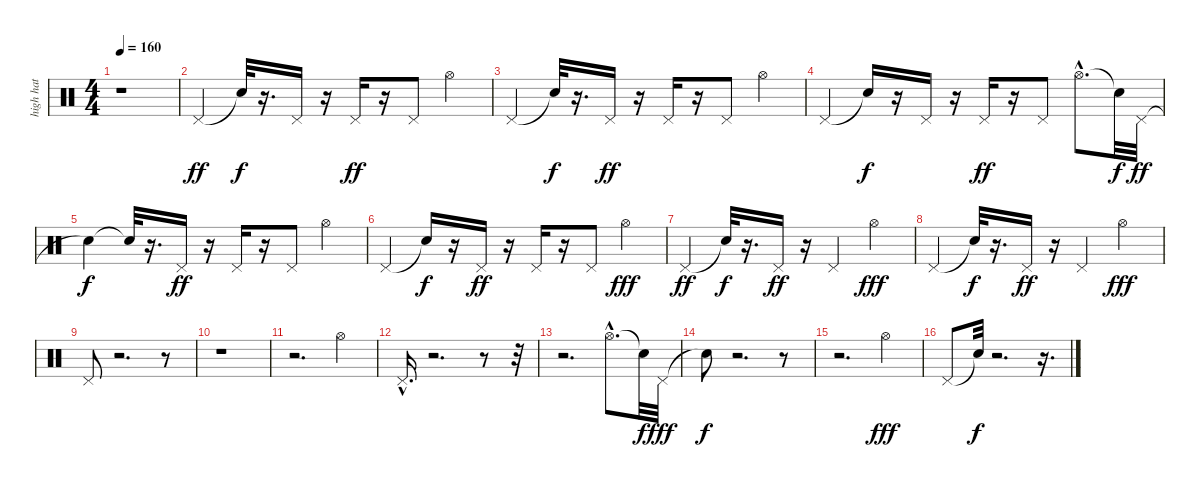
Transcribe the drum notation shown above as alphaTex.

\track ("high hat" "high hat") {instrument percussion}
\staff {score}
\articulation defaults
\ts (4 4)
\tempo 160
\clef neutral
\ks c
r.1{dy ff} |
"Pedal Hi-Hat (hit)".4 "Snare (hit)"{t}.32{dy f} r.16{d} "Pedal Hi-Hat (hit)".16 r.16 "Pedal Hi-Hat (hit)".16{dy ff} r.16 "Pedal Hi-Hat (hit)".8 "Hi-Hat (open)".4 |
"Pedal Hi-Hat (hit)".4 "Snare (hit)"{t}.32{dy f} r.16{d} "Pedal Hi-Hat (hit)".16{dy ff} r.16 "Pedal Hi-Hat (hit)".16 r.16 "Pedal Hi-Hat (hit)".8 "Hi-Hat (open)".4 |
"Pedal Hi-Hat (hit)".4 "Snare (hit)"{t}.16{dy f} r.16 "Pedal Hi-Hat (hit)".16 r.16 "Pedal Hi-Hat (hit)".16{dy ff} r.16 "Pedal Hi-Hat (hit)".8 "Hi-Hat (open)"{hac}.8{d} "Snare (hit)"{t}.32{dy f} "Pedal Hi-Hat (hit)".32{dy ff} |
"Snare (hit)"{t}.4{dy f} "Snare (hit)"{t}.32 r.16{d} "Pedal Hi-Hat (hit)".16{dy ff} r.16 "Pedal Hi-Hat (hit)".16 r.16 "Pedal Hi-Hat (hit)".8 "Hi-Hat (open)".4 |
"Pedal Hi-Hat (hit)".4 "Snare (hit)"{t}.16{dy f} r.16 "Pedal Hi-Hat (hit)".16{dy ff} r.16 "Pedal Hi-Hat (hit)".16 r.16 "Pedal Hi-Hat (hit)".8 "Hi-Hat (open)".4{dy fff} |
"Pedal Hi-Hat (hit)".4{dy ff} "Snare (hit)"{t}.32{dy f} r.16{d} "Pedal Hi-Hat (hit)".16{dy ff} r.16 "Pedal Hi-Hat (hit)".4 "Hi-Hat (open)".4{dy fff} |
"Pedal Hi-Hat (hit)".4 "Snare (hit)"{t}.32{dy f} r.16{d} "Pedal Hi-Hat (hit)".16{dy ff} r.16 "Pedal Hi-Hat (hit)".4 "Hi-Hat (open)".4{dy fff} |
"Pedal Hi-Hat (hit)".8 r.2{d} r.8 |
r.1 |
r.2{d} "Hi-Hat (open)".4 |
"Pedal Hi-Hat (hit)"{hac}.16{d} r.2{d} r.8 r.32 |
r.2{d} "Hi-Hat (open)"{hac}.8{d} "Snare (hit)"{t}.32{dy f} "Pedal Hi-Hat (hit)".32{dy fff} |
"Snare (hit)"{t}.8{dy f} r.2{d} r.8 |
r.2{d} "Hi-Hat (open)".4{dy fff} |
"Pedal Hi-Hat (hit)".8 "Snare (hit)"{t}.32{dy f} r.2{d} r.16{d}
